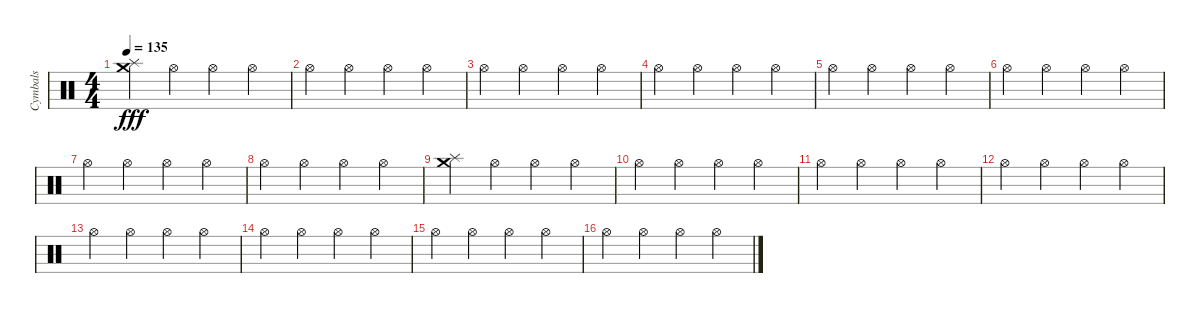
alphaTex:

\track ("Cymbals" "Cymbals") {instrument percussion}
\staff {score}
\articulation defaults
\ts (4 4)
\tempo 135
\clef neutral
\ks c
("Crash medium (hit)" "Splash (hit)").4{dy fff} "Hi-Hat (open)".4 "Hi-Hat (open)".4 "Hi-Hat (open)".4 |
"Hi-Hat (open)".4 "Hi-Hat (open)".4 "Hi-Hat (open)".4 "Hi-Hat (open)".4 |
"Hi-Hat (open)".4 "Hi-Hat (open)".4 "Hi-Hat (open)".4 "Hi-Hat (open)".4 |
"Hi-Hat (open)".4 "Hi-Hat (open)".4 "Hi-Hat (open)".4 "Hi-Hat (open)".4 |
"Hi-Hat (open)".4 "Hi-Hat (open)".4 "Hi-Hat (open)".4 "Hi-Hat (open)".4 |
"Hi-Hat (open)".4 "Hi-Hat (open)".4 "Hi-Hat (open)".4 "Hi-Hat (open)".4 |
"Hi-Hat (open)".4 "Hi-Hat (open)".4 "Hi-Hat (open)".4 "Hi-Hat (open)".4 |
"Hi-Hat (open)".4 "Hi-Hat (open)".4 "Hi-Hat (open)".4 "Hi-Hat (open)".4 |
("Crash medium (hit)" "Splash (hit)").4 "Hi-Hat (open)".4 "Hi-Hat (open)".4 "Hi-Hat (open)".4 |
"Hi-Hat (open)".4 "Hi-Hat (open)".4 "Hi-Hat (open)".4 "Hi-Hat (open)".4 |
"Hi-Hat (open)".4 "Hi-Hat (open)".4 "Hi-Hat (open)".4 "Hi-Hat (open)".4 |
"Hi-Hat (open)".4 "Hi-Hat (open)".4 "Hi-Hat (open)".4 "Hi-Hat (open)".4 |
"Hi-Hat (open)".4 "Hi-Hat (open)".4 "Hi-Hat (open)".4 "Hi-Hat (open)".4 |
"Hi-Hat (open)".4 "Hi-Hat (open)".4 "Hi-Hat (open)".4 "Hi-Hat (open)".4 |
"Hi-Hat (open)".4 "Hi-Hat (open)".4 "Hi-Hat (open)".4 "Hi-Hat (open)".4 |
"Hi-Hat (open)".4 "Hi-Hat (open)".4 "Hi-Hat (open)".4 "Hi-Hat (open)".4
